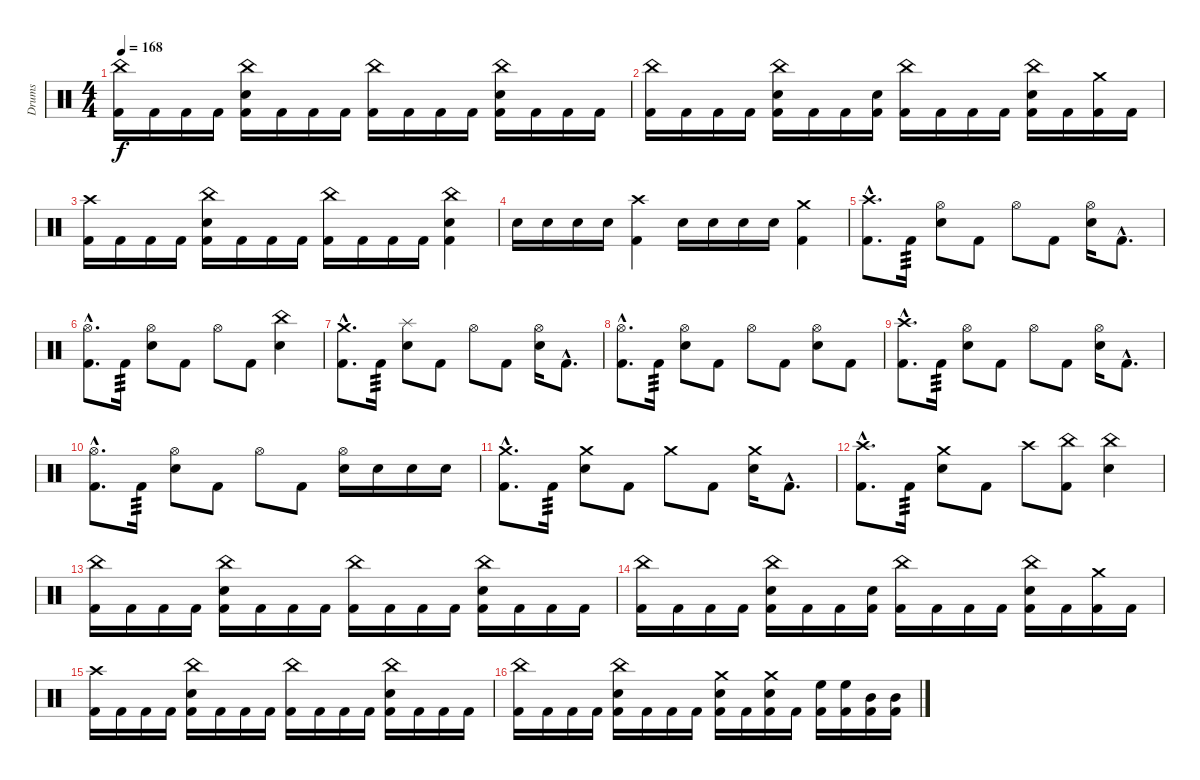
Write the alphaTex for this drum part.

\track ("Drums" "Drums") {instrument percussion}
\staff {score}
\articulation defaults
\ts (4 4)
\tempo 168
\clef neutral
\ks c
("China (hit)" "Kick (hit) 2").16{dy f} "Kick (hit) 2".16 "Kick (hit) 2".16 "Kick (hit) 2".16 ("China (hit)" "Snare (hit) 2" "Kick (hit) 2").16 "Kick (hit) 2".16 "Kick (hit) 2".16 "Kick (hit) 2".16 ("China (hit)" "Kick (hit) 2").16 "Kick (hit) 2".16 "Kick (hit) 2".16 "Kick (hit) 2".16 ("China (hit)" "Snare (hit) 2" "Kick (hit) 2").16 "Kick (hit) 2".16 "Kick (hit) 2".16 "Kick (hit) 2".16 |
("China (hit)" "Kick (hit) 2").16 "Kick (hit) 2".16 "Kick (hit) 2".16 "Kick (hit) 2".16 ("China (hit)" "Snare (hit) 2" "Kick (hit) 2").16 "Kick (hit) 2".16 "Kick (hit) 2".16 ("Snare (hit) 2" "Kick (hit) 2").16 ("China (hit)" "Kick (hit) 2").16 "Kick (hit) 2".16 "Kick (hit) 2".16 "Kick (hit) 2".16 ("China (hit)" "Snare (hit) 2" "Kick (hit) 2").16 "Kick (hit) 2".16 ("Crash medium (hit)" "Kick (hit) 2").16 "Kick (hit) 2".16 |
("Crash high (hit)" "Kick (hit) 2").16 "Kick (hit) 2".16 "Kick (hit) 2".16 "Kick (hit) 2".16 ("China (hit)" "Snare (hit) 2" "Kick (hit) 2").16 "Kick (hit) 2".16 "Kick (hit) 2".16 "Kick (hit) 2".16 ("China (hit)" "Kick (hit) 2").16 "Kick (hit) 2".16 "Kick (hit) 2".16 "Kick (hit) 2".16 ("China (hit)" "Snare (hit) 2" "Kick (hit) 2").4 |
"Snare (hit) 2".16 "Snare (hit) 2".16 "Snare (hit) 2".16 "Snare (hit) 2".16 ("Crash high (hit)" "Kick (hit) 2").4 "Snare (hit) 2".16 "Snare (hit) 2".16 "Snare (hit) 2".16 "Snare (hit) 2".16 ("Crash medium (hit)" "Kick (hit) 2").4 |
("Crash high (hit)"{hac} "Kick (hit) 2"{hac}).8{d} "Kick (hit) 2".16{tp 3} ("Hi-Hat (open)" "Snare (hit) 2").8 "Kick (hit) 2".8 "Hi-Hat (open)".8 "Kick (hit) 2".8 ("Hi-Hat (open)" "Snare (hit) 2").16 "Kick (hit) 2"{hac}.8{d} |
("Hi-Hat (open)"{hac} "Kick (hit) 2"{hac}).8{d} "Kick (hit) 2".16{tp 3} ("Hi-Hat (open)" "Snare (hit) 2").8 "Kick (hit) 2".8 "Hi-Hat (open)".8 "Kick (hit) 2".8 ("China (hit)" "Snare (hit) 2").4 |
("Crash medium (hit)"{hac} "Kick (hit) 2"{hac}).8{d} "Kick (hit) 2".16{tp 3} ("Splash (hit)" "Snare (hit) 2").8 "Kick (hit) 2".8 "Hi-Hat (open)".8 "Kick (hit) 2".8 ("Hi-Hat (open)" "Snare (hit) 2").16 "Kick (hit) 2"{hac}.8{d} |
("Hi-Hat (open)"{hac} "Kick (hit) 2"{hac}).8{d} "Kick (hit) 2".16{tp 3} ("Hi-Hat (open)" "Snare (hit) 2").8 "Kick (hit) 2".8 "Hi-Hat (open)".8 "Kick (hit) 2".8 ("Hi-Hat (open)" "Snare (hit) 2").8 "Kick (hit) 2".8 |
("Crash high (hit)"{hac} "Kick (hit) 2"{hac}).8{d} "Kick (hit) 2".16{tp 3} ("Hi-Hat (open)" "Snare (hit) 2").8 "Kick (hit) 2".8 "Hi-Hat (open)".8 "Kick (hit) 2".8 ("Hi-Hat (open)" "Snare (hit) 2").16 "Kick (hit) 2"{hac}.8{d} |
("Hi-Hat (open)"{hac} "Kick (hit) 2"{hac}).8{d} "Kick (hit) 2".16{tp 3} ("Hi-Hat (open)" "Snare (hit) 2").8 "Kick (hit) 2".8 "Hi-Hat (open)".8 "Kick (hit) 2".8 ("Hi-Hat (open)" "Snare (hit) 2").16 "Snare (hit) 2".16 "Snare (hit) 2".16 "Snare (hit) 2".16 |
("Crash medium (hit)"{hac} "Kick (hit) 2"{hac}).8{d} "Kick (hit) 2".16{tp 3} ("Crash medium (hit)" "Snare (hit) 2").8 "Kick (hit) 2".8 "Crash medium (hit)".8 "Kick (hit) 2".8 ("Crash medium (hit)" "Snare (hit) 2").16 "Kick (hit) 2"{hac}.8{d} |
("Crash high (hit)"{hac} "Kick (hit) 2"{hac}).8{d} "Kick (hit) 2".16{tp 3} ("Crash medium (hit)" "Snare (hit) 2").8 "Kick (hit) 2".8 "Crash high (hit)".8 ("China (hit)" "Kick (hit) 2").8 ("China (hit)" "Snare (hit) 2").4 |
("China (hit)" "Kick (hit) 2").16 "Kick (hit) 2".16 "Kick (hit) 2".16 "Kick (hit) 2".16 ("China (hit)" "Snare (hit) 2" "Kick (hit) 2").16 "Kick (hit) 2".16 "Kick (hit) 2".16 "Kick (hit) 2".16 ("China (hit)" "Kick (hit) 2").16 "Kick (hit) 2".16 "Kick (hit) 2".16 "Kick (hit) 2".16 ("China (hit)" "Snare (hit) 2" "Kick (hit) 2").16 "Kick (hit) 2".16 "Kick (hit) 2".16 "Kick (hit) 2".16 |
("China (hit)" "Kick (hit) 2").16 "Kick (hit) 2".16 "Kick (hit) 2".16 "Kick (hit) 2".16 ("China (hit)" "Snare (hit) 2" "Kick (hit) 2").16 "Kick (hit) 2".16 "Kick (hit) 2".16 ("Snare (hit) 2" "Kick (hit) 2").16 ("China (hit)" "Kick (hit) 2").16 "Kick (hit) 2".16 "Kick (hit) 2".16 "Kick (hit) 2".16 ("China (hit)" "Snare (hit) 2" "Kick (hit) 2").16 "Kick (hit) 2".16 ("Crash medium (hit)" "Kick (hit) 2").16 "Kick (hit) 2".16 |
("Crash high (hit)" "Kick (hit) 2").16 "Kick (hit) 2".16 "Kick (hit) 2".16 "Kick (hit) 2".16 ("China (hit)" "Snare (hit) 2" "Kick (hit) 2").16 "Kick (hit) 2".16 "Kick (hit) 2".16 "Kick (hit) 2".16 ("China (hit)" "Kick (hit) 2").16 "Kick (hit) 2".16 "Kick (hit) 2".16 "Kick (hit) 2".16 ("China (hit)" "Snare (hit) 2" "Kick (hit) 2").16 "Kick (hit) 2".16 "Kick (hit) 2".16 "Kick (hit) 2".16 |
("China (hit)" "Kick (hit) 2").16 "Kick (hit) 2".16 "Kick (hit) 2".16 "Kick (hit) 2".16 ("China (hit)" "Snare (hit) 2" "Kick (hit) 2").16 "Kick (hit) 2".16 "Kick (hit) 2".16 "Kick (hit) 2".16 ("Crash medium (hit)" "Snare (hit) 2" "Kick (hit) 2").16 "Kick (hit) 2".16 ("Crash medium (hit)" "Snare (hit) 2" "Kick (hit) 2").16 "Kick (hit) 2".16 ("High Floor Tom (hit)" "Kick (hit) 2").16 ("High Floor Tom (hit)" "Kick (hit) 2").16 ("Mid Tom (hit)" "Kick (hit) 2").16 ("Mid Tom (hit)" "Kick (hit) 2").16
